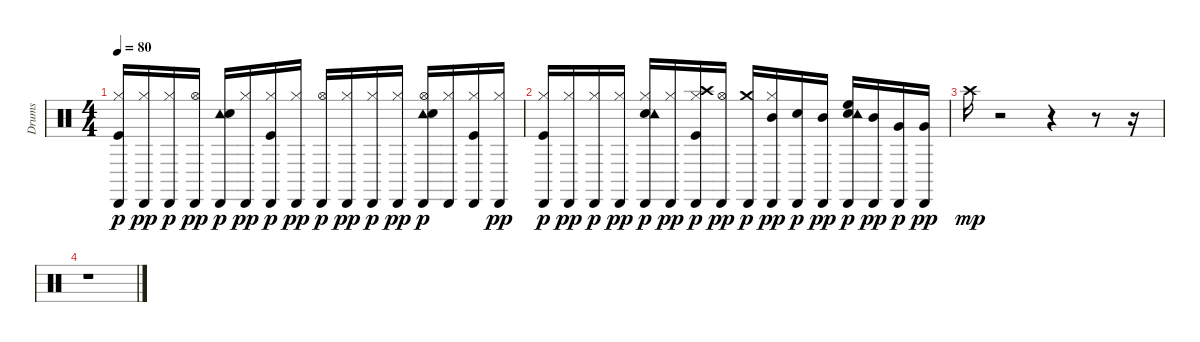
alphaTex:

\track ("Drums   " "Drums   ") {instrument percussion}
\staff {score}
\articulation defaults
\ts (4 4)
\tempo 80
\clef neutral
\ks c
("Kick (hit)" "Hi-Hat (closed)" "Cabasa (hit)").16{dy p} ("Hi-Hat (closed)" "Cabasa (hit)").16{dy pp} ("Hi-Hat (closed)" "Cabasa (hit)").16{dy p} ("Hi-Hat (open)" "Cabasa (hit)").16{dy pp} ("Tambourine (hit)" "Snare (hit) 2" "Cabasa (hit)").16{dy p} ("Hi-Hat (closed)" "Cabasa (hit)").16{dy pp} ("Kick (hit)" "Hi-Hat (closed)" "Cabasa (hit)").16{dy p} ("Hi-Hat (closed)" "Cabasa (hit)").16{dy pp} ("Hi-Hat (open)" "Cabasa (hit)").16{dy p} ("Hi-Hat (closed)" "Cabasa (hit)").16{dy pp} ("Hi-Hat (closed)" "Cabasa (hit)").16{dy p} ("Hi-Hat (closed)" "Cabasa (hit)").16{dy pp} ("Tambourine (hit)" "Snare (hit) 2" "Hi-Hat (open)" "Cabasa (hit)").16{dy p} ("Hi-Hat (closed)" "Cabasa (hit)").16 ("Kick (hit)" "Hi-Hat (closed)" "Cabasa (hit)").16 ("Hi-Hat (closed)" "Cabasa (hit)").16{dy pp} |
("Kick (hit)" "Hi-Hat (closed)" "Cabasa (hit)").16{dy p} ("Hi-Hat (closed)" "Cabasa (hit)").16{dy pp} ("Hi-Hat (closed)" "Cabasa (hit)").16{dy p} ("Hi-Hat (closed)" "Cabasa (hit)").16{dy pp} ("Snare (hit) 2" "Hi-Hat (closed)" "Tambourine (hit)" "Cabasa (hit)").16{dy p} ("Hi-Hat (closed)" "Cabasa (hit)").16{dy pp} ("Kick (hit)" "Hi-Hat (closed)" "Crash high (hit)" "Cabasa (hit)").16{dy p} ("Hi-Hat (open)" "Cabasa (hit)").16{dy pp} ("Crash medium (hit)" "Cabasa (hit)").16{dy p} ("Hi-Hat (closed)" "Mid Tom (hit)" "Cabasa (hit)").16{dy pp} ("Snare (hit) 2" "Cabasa (hit)").16{dy p} ("Mid Tom (hit)" "Cabasa (hit)").16{dy pp} ("Snare (hit) 2" "High Floor Tom (hit)" "Tambourine (hit)" "Cabasa (hit)").16{dy p} ("Mid Tom (hit)" "Cabasa (hit)").16{dy pp} ("Very Low Tom (hit)" "Cabasa (hit)").16{dy p} ("Very Low Tom (hit)" "Cabasa (hit)").16{dy pp} |
"Crash high (hit)".16{dy mp} r.2 r.4 r.8 r.16 |
r.1
